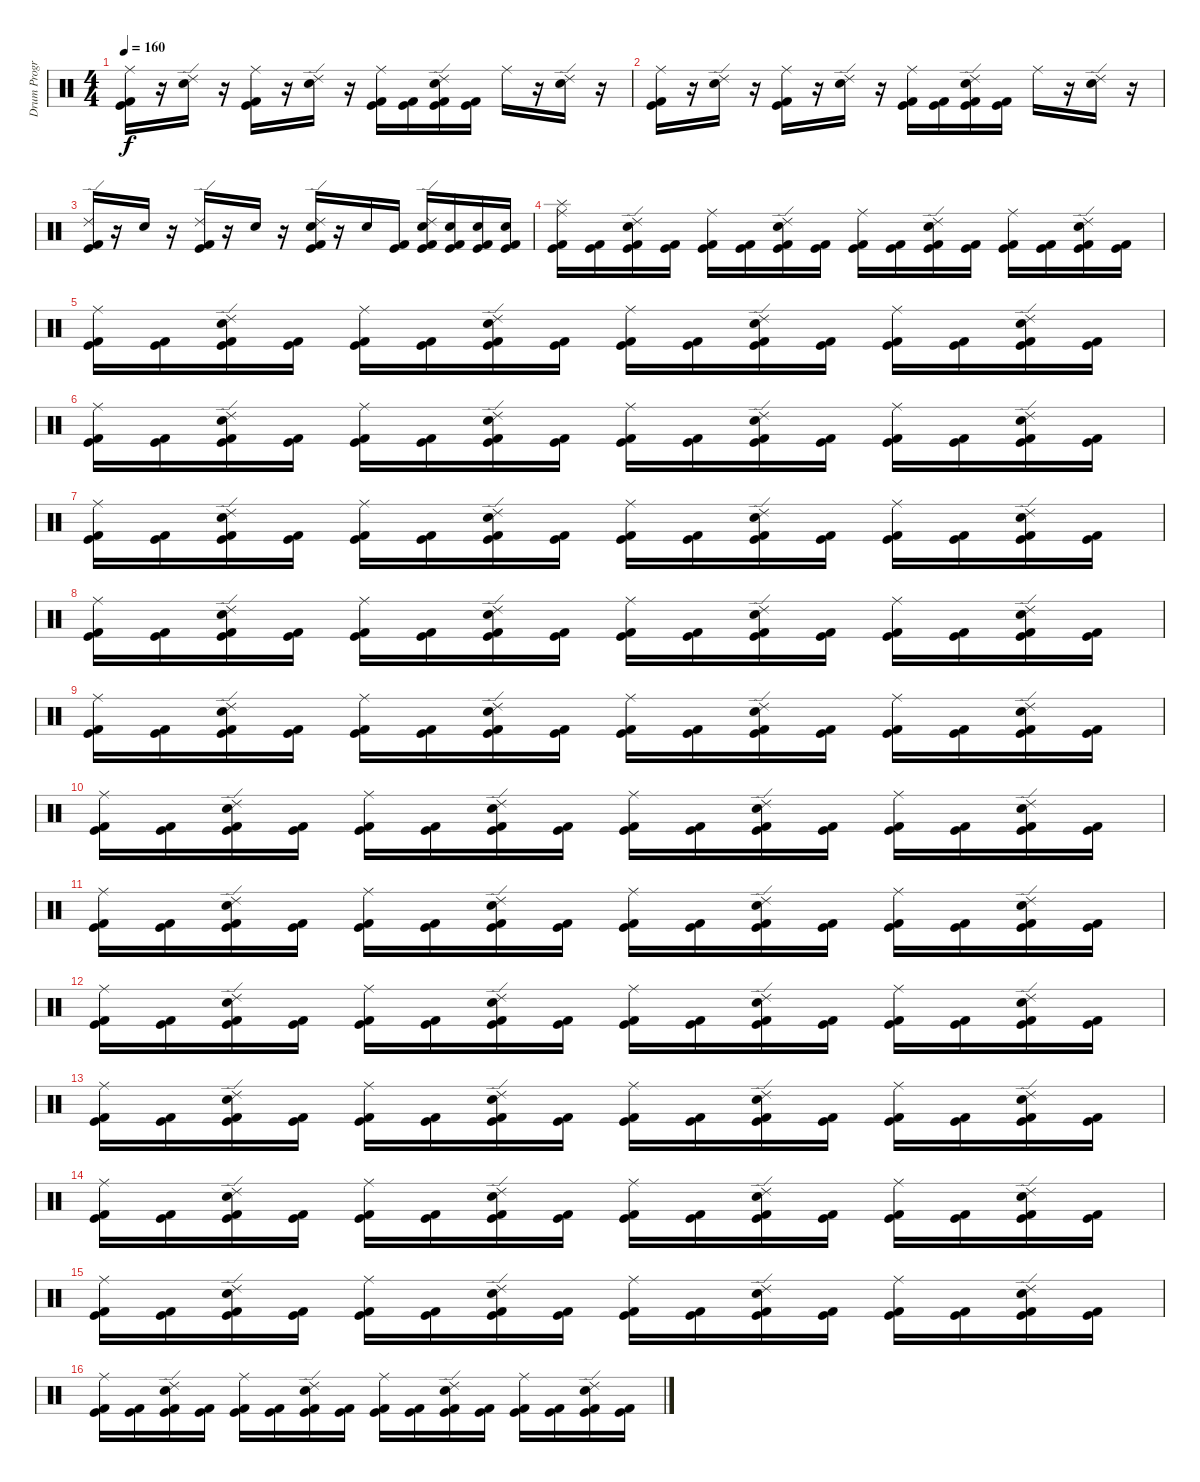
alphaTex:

\track ("Drum Program - BG" "Drum Progr") {instrument percussion}
\staff {score}
\articulation defaults
\ts (4 4)
\tempo 160
\clef neutral
\ks c
("Kick (hit) 2" "Kick (hit)" "Ride (middle)").16{dy f} r.16 ("Electric Snare (hit)" "Ride (edge) 2").16 r.16 ("Kick (hit)" "Kick (hit) 2" "Ride (middle)").16 r.16 ("Electric Snare (hit)" "Ride (edge) 2").16 r.16 ("Kick (hit)" "Kick (hit) 2" "Ride (middle)").16 ("Kick (hit)" "Kick (hit) 2").16 ("Kick (hit)" "Kick (hit) 2" "Electric Snare (hit)" "Ride (edge) 2").16 ("Kick (hit)" "Kick (hit) 2").16 "Ride (middle)".16 r.16 ("Electric Snare (hit)" "Ride (edge) 2").16 r.16 |
("Kick (hit) 2" "Kick (hit)" "Ride (middle)").16 r.16 ("Electric Snare (hit)" "Ride (edge) 2").16 r.16 ("Kick (hit)" "Kick (hit) 2" "Ride (middle)").16 r.16 ("Electric Snare (hit)" "Ride (edge) 2").16 r.16 ("Kick (hit)" "Kick (hit) 2" "Ride (middle)").16 ("Kick (hit)" "Kick (hit) 2").16 ("Kick (hit)" "Kick (hit) 2" "Electric Snare (hit)" "Ride (edge) 2").16 ("Kick (hit)" "Kick (hit) 2").16 "Ride (middle)".16 r.16 ("Electric Snare (hit)" "Ride (edge) 2").16 r.16 |
("Kick (hit)" "Kick (hit) 2" "Ride (edge) 2").16 r.16 "Electric Snare (hit)".16 r.16 ("Kick (hit)" "Kick (hit) 2" "Ride (edge) 2").16 r.16 "Electric Snare (hit)".16 r.16 ("Kick (hit)" "Kick (hit) 2" "Electric Snare (hit)" "Ride (edge) 2").16 r.16 "Electric Snare (hit)".16 ("Kick (hit)" "Kick (hit) 2").16 ("Kick (hit)" "Kick (hit) 2" "Electric Snare (hit)" "Ride (edge) 2").16 ("Kick (hit)" "Kick (hit) 2" "Electric Snare (hit)").16 ("Kick (hit)" "Kick (hit) 2" "Electric Snare (hit)").16 ("Kick (hit)" "Kick (hit) 2" "Electric Snare (hit)").16 |
("Kick (hit)" "Kick (hit) 2" "Splash (hit)" "Ride (middle)").16 ("Kick (hit)" "Kick (hit) 2").16 ("Kick (hit)" "Kick (hit) 2" "Electric Snare (hit)" "Ride (edge) 2").16 ("Kick (hit)" "Kick (hit) 2").16 ("Kick (hit)" "Kick (hit) 2" "Ride (middle)").16 ("Kick (hit)" "Kick (hit) 2").16 ("Kick (hit)" "Kick (hit) 2" "Electric Snare (hit)" "Ride (edge) 2").16 ("Kick (hit)" "Kick (hit) 2").16 ("Kick (hit)" "Kick (hit) 2" "Ride (middle)").16 ("Kick (hit)" "Kick (hit) 2").16 ("Kick (hit)" "Kick (hit) 2" "Electric Snare (hit)" "Ride (edge) 2").16 ("Kick (hit)" "Kick (hit) 2").16 ("Kick (hit)" "Kick (hit) 2" "Ride (middle)").16 ("Kick (hit)" "Kick (hit) 2").16 ("Kick (hit)" "Kick (hit) 2" "Electric Snare (hit)" "Ride (edge) 2").16 ("Kick (hit)" "Kick (hit) 2").16 |
("Kick (hit)" "Kick (hit) 2" "Ride (middle)").16 ("Kick (hit)" "Kick (hit) 2").16 ("Kick (hit)" "Kick (hit) 2" "Electric Snare (hit)" "Ride (edge) 2").16 ("Kick (hit)" "Kick (hit) 2").16 ("Kick (hit)" "Kick (hit) 2" "Ride (middle)").16 ("Kick (hit)" "Kick (hit) 2").16 ("Kick (hit)" "Kick (hit) 2" "Electric Snare (hit)" "Ride (edge) 2").16 ("Kick (hit)" "Kick (hit) 2").16 ("Kick (hit)" "Kick (hit) 2" "Ride (middle)").16 ("Kick (hit)" "Kick (hit) 2").16 ("Kick (hit)" "Kick (hit) 2" "Electric Snare (hit)" "Ride (edge) 2").16 ("Kick (hit)" "Kick (hit) 2").16 ("Kick (hit)" "Kick (hit) 2" "Ride (middle)").16 ("Kick (hit)" "Kick (hit) 2").16 ("Kick (hit)" "Kick (hit) 2" "Electric Snare (hit)" "Ride (edge) 2").16 ("Kick (hit)" "Kick (hit) 2").16 |
("Kick (hit)" "Kick (hit) 2" "Ride (middle)").16 ("Kick (hit)" "Kick (hit) 2").16 ("Kick (hit)" "Kick (hit) 2" "Electric Snare (hit)" "Ride (edge) 2").16 ("Kick (hit)" "Kick (hit) 2").16 ("Kick (hit)" "Kick (hit) 2" "Ride (middle)").16 ("Kick (hit)" "Kick (hit) 2").16 ("Kick (hit)" "Kick (hit) 2" "Electric Snare (hit)" "Ride (edge) 2").16 ("Kick (hit)" "Kick (hit) 2").16 ("Kick (hit)" "Kick (hit) 2" "Ride (middle)").16 ("Kick (hit)" "Kick (hit) 2").16 ("Kick (hit)" "Kick (hit) 2" "Electric Snare (hit)" "Ride (edge) 2").16 ("Kick (hit)" "Kick (hit) 2").16 ("Kick (hit)" "Kick (hit) 2" "Ride (middle)").16 ("Kick (hit)" "Kick (hit) 2").16 ("Kick (hit)" "Kick (hit) 2" "Electric Snare (hit)" "Ride (edge) 2").16 ("Kick (hit)" "Kick (hit) 2").16 |
("Kick (hit)" "Kick (hit) 2" "Ride (middle)").16 ("Kick (hit)" "Kick (hit) 2").16 ("Kick (hit)" "Kick (hit) 2" "Electric Snare (hit)" "Ride (edge) 2").16 ("Kick (hit)" "Kick (hit) 2").16 ("Kick (hit)" "Kick (hit) 2" "Ride (middle)").16 ("Kick (hit)" "Kick (hit) 2").16 ("Kick (hit)" "Kick (hit) 2" "Electric Snare (hit)" "Ride (edge) 2").16 ("Kick (hit)" "Kick (hit) 2").16 ("Kick (hit)" "Kick (hit) 2" "Ride (middle)").16 ("Kick (hit)" "Kick (hit) 2").16 ("Kick (hit)" "Kick (hit) 2" "Electric Snare (hit)" "Ride (edge) 2").16 ("Kick (hit)" "Kick (hit) 2").16 ("Kick (hit)" "Kick (hit) 2" "Ride (middle)").16 ("Kick (hit)" "Kick (hit) 2").16 ("Kick (hit)" "Kick (hit) 2" "Electric Snare (hit)" "Ride (edge) 2").16 ("Kick (hit)" "Kick (hit) 2").16 |
("Kick (hit)" "Kick (hit) 2" "Ride (middle)").16 ("Kick (hit)" "Kick (hit) 2").16 ("Kick (hit)" "Kick (hit) 2" "Electric Snare (hit)" "Ride (edge) 2").16 ("Kick (hit)" "Kick (hit) 2").16 ("Kick (hit)" "Kick (hit) 2" "Ride (middle)").16 ("Kick (hit)" "Kick (hit) 2").16 ("Kick (hit)" "Kick (hit) 2" "Electric Snare (hit)" "Ride (edge) 2").16 ("Kick (hit)" "Kick (hit) 2").16 ("Kick (hit)" "Kick (hit) 2" "Ride (middle)").16 ("Kick (hit)" "Kick (hit) 2").16 ("Kick (hit)" "Kick (hit) 2" "Electric Snare (hit)" "Ride (edge) 2").16 ("Kick (hit)" "Kick (hit) 2").16 ("Kick (hit)" "Kick (hit) 2" "Ride (middle)").16 ("Kick (hit)" "Kick (hit) 2").16 ("Kick (hit)" "Kick (hit) 2" "Electric Snare (hit)" "Ride (edge) 2").16 ("Kick (hit)" "Kick (hit) 2").16 |
("Kick (hit)" "Kick (hit) 2" "Ride (middle)").16 ("Kick (hit)" "Kick (hit) 2").16 ("Kick (hit)" "Kick (hit) 2" "Electric Snare (hit)" "Ride (edge) 2").16 ("Kick (hit)" "Kick (hit) 2").16 ("Kick (hit)" "Kick (hit) 2" "Ride (middle)").16 ("Kick (hit)" "Kick (hit) 2").16 ("Kick (hit)" "Kick (hit) 2" "Electric Snare (hit)" "Ride (edge) 2").16 ("Kick (hit)" "Kick (hit) 2").16 ("Kick (hit)" "Kick (hit) 2" "Ride (middle)").16 ("Kick (hit)" "Kick (hit) 2").16 ("Kick (hit)" "Kick (hit) 2" "Electric Snare (hit)" "Ride (edge) 2").16 ("Kick (hit)" "Kick (hit) 2").16 ("Kick (hit)" "Kick (hit) 2" "Ride (middle)").16 ("Kick (hit)" "Kick (hit) 2").16 ("Kick (hit)" "Kick (hit) 2" "Electric Snare (hit)" "Ride (edge) 2").16 ("Kick (hit)" "Kick (hit) 2").16 |
("Kick (hit)" "Kick (hit) 2" "Ride (middle)").16 ("Kick (hit)" "Kick (hit) 2").16 ("Kick (hit)" "Kick (hit) 2" "Electric Snare (hit)" "Ride (edge) 2").16 ("Kick (hit)" "Kick (hit) 2").16 ("Kick (hit)" "Kick (hit) 2" "Ride (middle)").16 ("Kick (hit)" "Kick (hit) 2").16 ("Kick (hit)" "Kick (hit) 2" "Electric Snare (hit)" "Ride (edge) 2").16 ("Kick (hit)" "Kick (hit) 2").16 ("Kick (hit)" "Kick (hit) 2" "Ride (middle)").16 ("Kick (hit)" "Kick (hit) 2").16 ("Kick (hit)" "Kick (hit) 2" "Electric Snare (hit)" "Ride (edge) 2").16 ("Kick (hit)" "Kick (hit) 2").16 ("Kick (hit)" "Kick (hit) 2" "Ride (middle)").16 ("Kick (hit)" "Kick (hit) 2").16 ("Kick (hit)" "Kick (hit) 2" "Electric Snare (hit)" "Ride (edge) 2").16 ("Kick (hit)" "Kick (hit) 2").16 |
("Kick (hit)" "Kick (hit) 2" "Ride (middle)").16 ("Kick (hit)" "Kick (hit) 2").16 ("Kick (hit)" "Kick (hit) 2" "Electric Snare (hit)" "Ride (edge) 2").16 ("Kick (hit)" "Kick (hit) 2").16 ("Kick (hit)" "Kick (hit) 2" "Ride (middle)").16 ("Kick (hit)" "Kick (hit) 2").16 ("Kick (hit)" "Kick (hit) 2" "Electric Snare (hit)" "Ride (edge) 2").16 ("Kick (hit)" "Kick (hit) 2").16 ("Kick (hit)" "Kick (hit) 2" "Ride (middle)").16 ("Kick (hit)" "Kick (hit) 2").16 ("Kick (hit)" "Kick (hit) 2" "Electric Snare (hit)" "Ride (edge) 2").16 ("Kick (hit)" "Kick (hit) 2").16 ("Kick (hit)" "Kick (hit) 2" "Ride (middle)").16 ("Kick (hit)" "Kick (hit) 2").16 ("Kick (hit)" "Kick (hit) 2" "Electric Snare (hit)" "Ride (edge) 2").16 ("Kick (hit)" "Kick (hit) 2").16 |
("Kick (hit)" "Kick (hit) 2" "Ride (middle)").16 ("Kick (hit)" "Kick (hit) 2").16 ("Kick (hit)" "Kick (hit) 2" "Electric Snare (hit)" "Ride (edge) 2").16 ("Kick (hit)" "Kick (hit) 2").16 ("Kick (hit)" "Kick (hit) 2" "Ride (middle)").16 ("Kick (hit)" "Kick (hit) 2").16 ("Kick (hit)" "Kick (hit) 2" "Electric Snare (hit)" "Ride (edge) 2").16 ("Kick (hit)" "Kick (hit) 2").16 ("Kick (hit)" "Kick (hit) 2" "Ride (middle)").16 ("Kick (hit)" "Kick (hit) 2").16 ("Kick (hit)" "Kick (hit) 2" "Electric Snare (hit)" "Ride (edge) 2").16 ("Kick (hit)" "Kick (hit) 2").16 ("Kick (hit)" "Kick (hit) 2" "Ride (middle)").16 ("Kick (hit)" "Kick (hit) 2").16 ("Kick (hit)" "Kick (hit) 2" "Electric Snare (hit)" "Ride (edge) 2").16 ("Kick (hit)" "Kick (hit) 2").16 |
("Kick (hit)" "Kick (hit) 2" "Ride (middle)").16 ("Kick (hit)" "Kick (hit) 2").16 ("Kick (hit)" "Kick (hit) 2" "Electric Snare (hit)" "Ride (edge) 2").16 ("Kick (hit)" "Kick (hit) 2").16 ("Kick (hit)" "Kick (hit) 2" "Ride (middle)").16 ("Kick (hit)" "Kick (hit) 2").16 ("Kick (hit)" "Kick (hit) 2" "Electric Snare (hit)" "Ride (edge) 2").16 ("Kick (hit)" "Kick (hit) 2").16 ("Kick (hit)" "Kick (hit) 2" "Ride (middle)").16 ("Kick (hit)" "Kick (hit) 2").16 ("Kick (hit)" "Kick (hit) 2" "Electric Snare (hit)" "Ride (edge) 2").16 ("Kick (hit)" "Kick (hit) 2").16 ("Kick (hit)" "Kick (hit) 2" "Ride (middle)").16 ("Kick (hit)" "Kick (hit) 2").16 ("Kick (hit)" "Kick (hit) 2" "Electric Snare (hit)" "Ride (edge) 2").16 ("Kick (hit)" "Kick (hit) 2").16 |
("Kick (hit)" "Kick (hit) 2" "Ride (middle)").16 ("Kick (hit)" "Kick (hit) 2").16 ("Kick (hit)" "Kick (hit) 2" "Electric Snare (hit)" "Ride (edge) 2").16 ("Kick (hit)" "Kick (hit) 2").16 ("Kick (hit)" "Kick (hit) 2" "Ride (middle)").16 ("Kick (hit)" "Kick (hit) 2").16 ("Kick (hit)" "Kick (hit) 2" "Electric Snare (hit)" "Ride (edge) 2").16 ("Kick (hit)" "Kick (hit) 2").16 ("Kick (hit)" "Kick (hit) 2" "Ride (middle)").16 ("Kick (hit)" "Kick (hit) 2").16 ("Kick (hit)" "Kick (hit) 2" "Electric Snare (hit)" "Ride (edge) 2").16 ("Kick (hit)" "Kick (hit) 2").16 ("Kick (hit)" "Kick (hit) 2" "Ride (middle)").16 ("Kick (hit)" "Kick (hit) 2").16 ("Kick (hit)" "Kick (hit) 2" "Electric Snare (hit)" "Ride (edge) 2").16 ("Kick (hit)" "Kick (hit) 2").16 |
("Kick (hit)" "Kick (hit) 2" "Ride (middle)").16 ("Kick (hit)" "Kick (hit) 2").16 ("Kick (hit)" "Kick (hit) 2" "Electric Snare (hit)" "Ride (edge) 2").16 ("Kick (hit)" "Kick (hit) 2").16 ("Kick (hit)" "Kick (hit) 2" "Ride (middle)").16 ("Kick (hit)" "Kick (hit) 2").16 ("Kick (hit)" "Kick (hit) 2" "Electric Snare (hit)" "Ride (edge) 2").16 ("Kick (hit)" "Kick (hit) 2").16 ("Kick (hit)" "Kick (hit) 2" "Ride (middle)").16 ("Kick (hit)" "Kick (hit) 2").16 ("Kick (hit)" "Kick (hit) 2" "Electric Snare (hit)" "Ride (edge) 2").16 ("Kick (hit)" "Kick (hit) 2").16 ("Kick (hit)" "Kick (hit) 2" "Ride (middle)").16 ("Kick (hit)" "Kick (hit) 2").16 ("Kick (hit)" "Kick (hit) 2" "Electric Snare (hit)" "Ride (edge) 2").16 ("Kick (hit)" "Kick (hit) 2").16 |
("Kick (hit)" "Kick (hit) 2" "Ride (middle)").16 ("Kick (hit)" "Kick (hit) 2").16 ("Kick (hit)" "Kick (hit) 2" "Electric Snare (hit)" "Ride (edge) 2").16 ("Kick (hit)" "Kick (hit) 2").16 ("Kick (hit)" "Kick (hit) 2" "Ride (middle)").16 ("Kick (hit)" "Kick (hit) 2").16 ("Kick (hit)" "Kick (hit) 2" "Electric Snare (hit)" "Ride (edge) 2").16 ("Kick (hit)" "Kick (hit) 2").16 ("Kick (hit)" "Kick (hit) 2" "Ride (middle)").16 ("Kick (hit)" "Kick (hit) 2").16 ("Kick (hit)" "Kick (hit) 2" "Electric Snare (hit)" "Ride (edge) 2").16 ("Kick (hit)" "Kick (hit) 2").16 ("Kick (hit)" "Kick (hit) 2" "Ride (middle)").16 ("Kick (hit)" "Kick (hit) 2").16 ("Kick (hit)" "Kick (hit) 2" "Electric Snare (hit)" "Ride (edge) 2").16 ("Kick (hit)" "Kick (hit) 2").16
